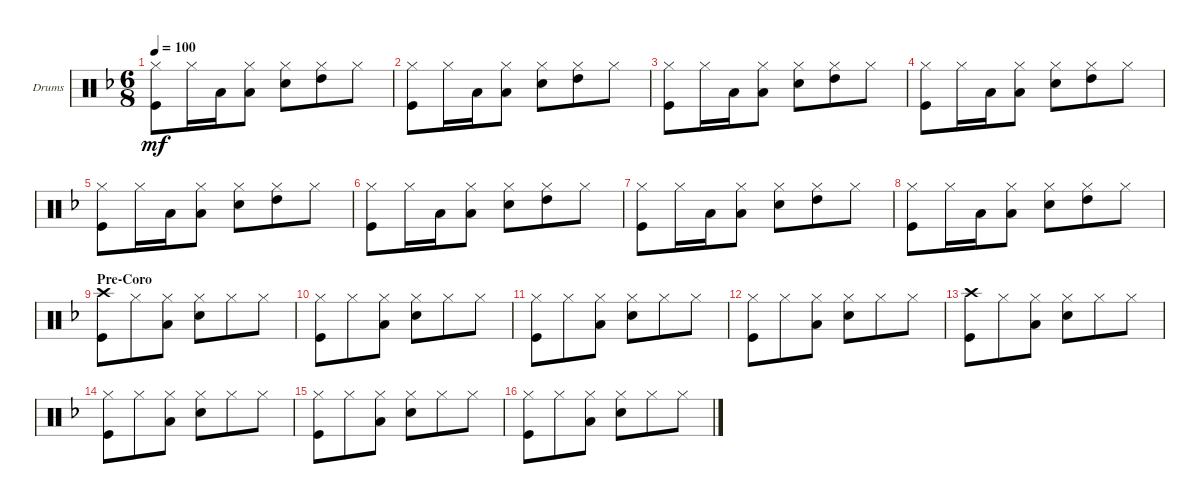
\defaultSystemsLayout 4
\bracketExtendMode groupsimilarinstruments
\firstSystemTrackNameOrientation horizontal
\otherSystemsTrackNameOrientation horizontal
\track ("Drumkit" "Drums") {instrument percussion}
\staff {score}
\articulation defaults
\ts (6 8)
\tempo 100
\clef neutral
\ks dminor
("Kick (hit)" "Hi-Hat (closed)").8{dy mf} "Hi-Hat (closed)".16 "Low Tom (hit)".16 ("Hi-Hat (closed)" "Low Tom (hit)").8 ("Hi-Hat (closed)" "Snare (hit) 2").8 ("Hi-Hat (closed)" "High Tom (hit)").8 "Hi-Hat (closed)".8 |
("Kick (hit)" "Hi-Hat (closed)").8 "Hi-Hat (closed)".16 "Low Tom (hit)".16 ("Hi-Hat (closed)" "Low Tom (hit)").8 ("Hi-Hat (closed)" "Snare (hit) 2").8 ("Hi-Hat (closed)" "High Tom (hit)").8 "Hi-Hat (closed)".8 |
("Kick (hit)" "Hi-Hat (closed)").8 "Hi-Hat (closed)".16 "Low Tom (hit)".16 ("Hi-Hat (closed)" "Low Tom (hit)").8 ("Hi-Hat (closed)" "Snare (hit) 2").8 ("Hi-Hat (closed)" "High Tom (hit)").8 "Hi-Hat (closed)".8 |
("Kick (hit)" "Hi-Hat (closed)").8 "Hi-Hat (closed)".16 "Low Tom (hit)".16 ("Hi-Hat (closed)" "Low Tom (hit)").8 ("Hi-Hat (closed)" "Snare (hit) 2").8 ("Hi-Hat (closed)" "High Tom (hit)").8 "Hi-Hat (closed)".8 |
("Kick (hit)" "Hi-Hat (closed)").8 "Hi-Hat (closed)".16 "Low Tom (hit)".16 ("Hi-Hat (closed)" "Low Tom (hit)").8 ("Hi-Hat (closed)" "Snare (hit) 2").8 ("Hi-Hat (closed)" "High Tom (hit)").8 "Hi-Hat (closed)".8 |
("Kick (hit)" "Hi-Hat (closed)").8 "Hi-Hat (closed)".16 "Low Tom (hit)".16 ("Hi-Hat (closed)" "Low Tom (hit)").8 ("Hi-Hat (closed)" "Snare (hit) 2").8 ("Hi-Hat (closed)" "High Tom (hit)").8 "Hi-Hat (closed)".8 |
("Kick (hit)" "Hi-Hat (closed)").8 "Hi-Hat (closed)".16 "Low Tom (hit)".16 ("Hi-Hat (closed)" "Low Tom (hit)").8 ("Hi-Hat (closed)" "Snare (hit) 2").8 ("Hi-Hat (closed)" "High Tom (hit)").8 "Hi-Hat (closed)".8 |
("Kick (hit)" "Hi-Hat (closed)").8 "Hi-Hat (closed)".16 "Low Tom (hit)".16 ("Hi-Hat (closed)" "Low Tom (hit)").8 ("Hi-Hat (closed)" "Snare (hit) 2").8 ("Hi-Hat (closed)" "High Tom (hit)").8 "Hi-Hat (closed)".8 |
\section ("" "Pre-Coro")
("Kick (hit)" "Crash high (hit)").8 "Hi-Hat (closed)".8 ("Hi-Hat (closed)" "Low Tom (hit)").8 ("Hi-Hat (closed)" "Snare (hit) 2").8 "Hi-Hat (closed)".8 "Hi-Hat (closed)".8 |
("Kick (hit)" "Hi-Hat (closed)").8 "Hi-Hat (closed)".8 ("Hi-Hat (closed)" "Low Tom (hit)").8 ("Hi-Hat (closed)" "Snare (hit) 2").8 "Hi-Hat (closed)".8 "Hi-Hat (closed)".8 |
("Kick (hit)" "Hi-Hat (closed)").8 "Hi-Hat (closed)".8 ("Hi-Hat (closed)" "Low Tom (hit)").8 ("Hi-Hat (closed)" "Snare (hit) 2").8 "Hi-Hat (closed)".8 "Hi-Hat (closed)".8 |
("Kick (hit)" "Hi-Hat (closed)").8 "Hi-Hat (closed)".8 ("Hi-Hat (closed)" "Low Tom (hit)").8 ("Hi-Hat (closed)" "Snare (hit) 2").8 "Hi-Hat (closed)".8 "Hi-Hat (closed)".8 |
("Kick (hit)" "Crash high (hit)").8 "Hi-Hat (closed)".8 ("Hi-Hat (closed)" "Low Tom (hit)").8 ("Hi-Hat (closed)" "Snare (hit) 2").8 "Hi-Hat (closed)".8 "Hi-Hat (closed)".8 |
("Kick (hit)" "Hi-Hat (closed)").8 "Hi-Hat (closed)".8 ("Hi-Hat (closed)" "Low Tom (hit)").8 ("Hi-Hat (closed)" "Snare (hit) 2").8 "Hi-Hat (closed)".8 "Hi-Hat (closed)".8 |
("Kick (hit)" "Hi-Hat (closed)").8 "Hi-Hat (closed)".8 ("Hi-Hat (closed)" "Low Tom (hit)").8 ("Hi-Hat (closed)" "Snare (hit) 2").8 "Hi-Hat (closed)".8 "Hi-Hat (closed)".8 |
("Kick (hit)" "Hi-Hat (closed)").8 "Hi-Hat (closed)".8 ("Hi-Hat (closed)" "Low Tom (hit)").8 ("Hi-Hat (closed)" "Snare (hit) 2").8 "Hi-Hat (closed)".8 "Hi-Hat (closed)".8
